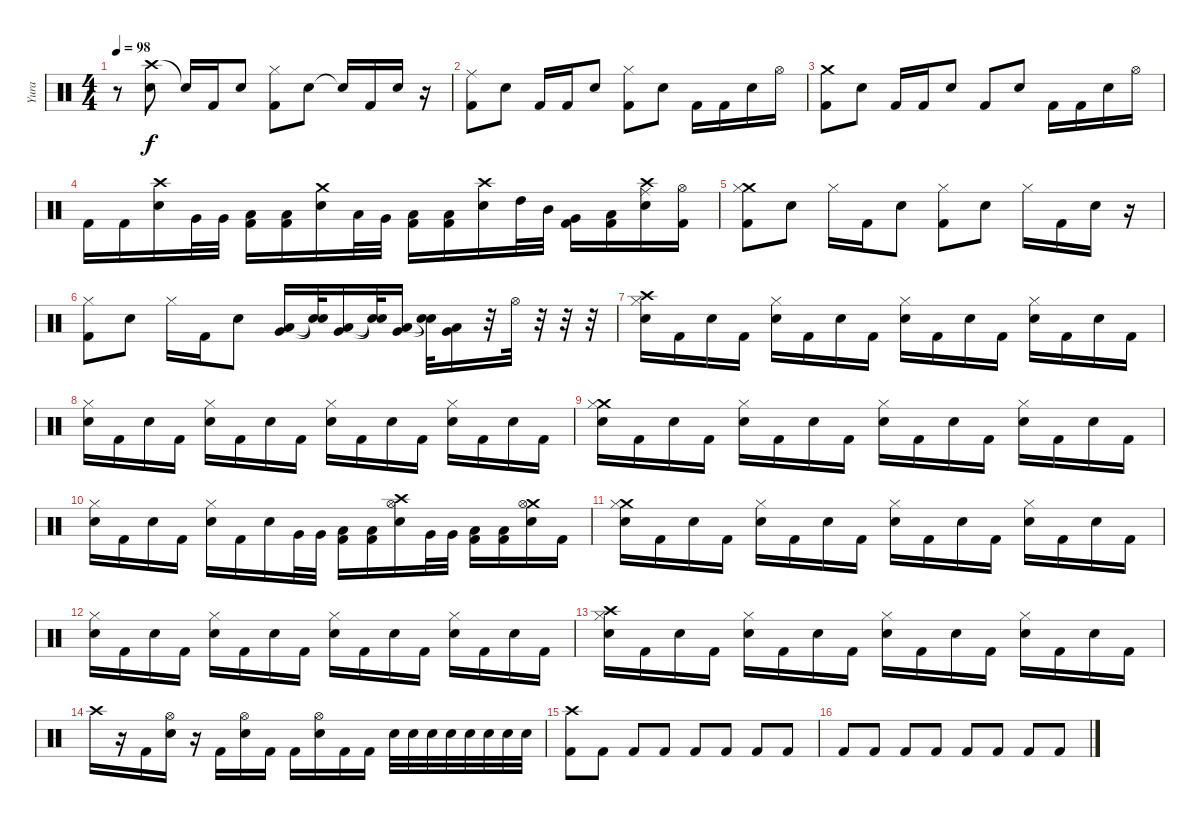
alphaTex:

\track ("Yura" "Yura") {instrument percussion}
\staff {score}
\articulation defaults
\ts (4 4)
\tempo 98
\clef neutral
\ks c
r.8{dy f} ("Crash high (hit)" "Snare (hit) 2").8 "Snare (hit)"{t}.16 "Kick (hit) 2".16 "Snare (hit) 2".8 ("Hi-Hat (closed)" "Kick (hit) 2").8 "Snare (hit) 2".8 "Snare (hit)"{t}.16 "Kick (hit) 2".16 "Snare (hit) 2".16 r.16 |
("Ride (middle)" "Kick (hit) 2").8 "Snare (hit) 2".8 "Kick (hit) 2".16 "Kick (hit) 2".16 "Snare (hit) 2".8 ("Hi-Hat (closed)" "Kick (hit) 2").8 "Snare (hit) 2".8 "Kick (hit) 2".16 "Kick (hit) 2".16 "Snare (hit) 2".16 "Hi-Hat (open)".16 |
("Crash medium (hit)" "Kick (hit) 2").8 "Snare (hit) 2".8 "Kick (hit) 2".16 "Kick (hit) 2".16 "Snare (hit) 2".8 "Kick (hit) 2".8 "Snare (hit) 2".8 "Kick (hit) 2".16 "Kick (hit) 2".16 "Snare (hit) 2".16 "Hi-Hat (open)".16 |
"Kick (hit) 2".16 "Kick (hit) 2".16 ("Crash high (hit)" "Snare (hit) 2").16 "Very Low Tom (hit)".32 "Very Low Tom (hit)".32 ("Low Floor Tom (hit)" "Kick (hit) 2").16 ("Low Floor Tom (hit)" "Kick (hit) 2").16 ("Crash medium (hit)" "Snare (hit) 2").16 "Low Tom (hit)".32 "Very Low Tom (hit)".32 ("Low Floor Tom (hit)" "Kick (hit) 2").16 ("Low Floor Tom (hit)" "Kick (hit) 2").16 ("Crash high (hit)" "Snare (hit) 2").16 "High Tom (hit)".32 "Mid Tom (hit)".32 ("Very Low Tom (hit)" "Kick (hit) 2").16 ("Low Floor Tom (hit)" "Kick (hit) 2").16 ("Crash high (hit)" "Ride (middle)" "Snare (hit) 2").16 ("Hi-Hat (open)" "Kick (hit) 2").16 |
("Crash medium (hit)" "Hi-Hat (closed)" "Kick (hit) 2").8 "Snare (hit) 2".8 "Hi-Hat (closed)".16 "Kick (hit) 2".16 "Snare (hit) 2".8 ("Hi-Hat (closed)" "Kick (hit) 2").8 "Snare (hit) 2".8 "Hi-Hat (closed)".16 "Kick (hit) 2".16 "Snare (hit) 2".16 r.16 |
("Hi-Hat (closed)" "Kick (hit) 2").8 "Snare (hit) 2".8 "Hi-Hat (closed)".16 "Kick (hit) 2".16 "Snare (hit) 2".8 ("Low Floor Tom (hit)" "Very Low Tom (hit)").16 ("Snare (hit)"{t} "Snare (hit)"{t}).32 ("Low Floor Tom (hit)" "Very Low Tom (hit)").16 ("Snare (hit)"{t} "Snare (hit)"{t}).32 ("Low Floor Tom (hit)" "Very Low Tom (hit)").16 ("Snare (hit)"{t} "Snare (hit)"{t}).32 ("Low Floor Tom (hit)" "Very Low Tom (hit)").16 r.32 "Hi-Hat (open)".32 r.32 r.32 r.32 |
("Crash high (hit)" "Hi-Hat (closed)" "Snare (hit) 2").16 "Kick (hit) 2".16 "Snare (hit) 2".16 "Kick (hit) 2".16 ("Hi-Hat (closed)" "Snare (hit) 2").16 "Kick (hit) 2".16 "Snare (hit) 2".16 "Kick (hit) 2".16 ("Hi-Hat (closed)" "Snare (hit) 2").16 "Kick (hit) 2".16 "Snare (hit) 2".16 "Kick (hit) 2".16 ("Hi-Hat (closed)" "Snare (hit) 2").16 "Kick (hit) 2".16 "Snare (hit) 2".16 "Kick (hit) 2".16 |
("Hi-Hat (closed)" "Snare (hit) 2").16 "Kick (hit) 2".16 "Snare (hit) 2".16 "Kick (hit) 2".16 ("Hi-Hat (closed)" "Snare (hit) 2").16 "Kick (hit) 2".16 "Snare (hit) 2".16 "Kick (hit) 2".16 ("Hi-Hat (closed)" "Snare (hit) 2").16 "Kick (hit) 2".16 "Snare (hit) 2".16 "Kick (hit) 2".16 ("Hi-Hat (closed)" "Snare (hit) 2").16 "Kick (hit) 2".16 "Snare (hit) 2".16 "Kick (hit) 2".16 |
("Crash medium (hit)" "Hi-Hat (closed)" "Snare (hit) 2").16 "Kick (hit) 2".16 "Snare (hit) 2".16 "Kick (hit) 2".16 ("Hi-Hat (closed)" "Snare (hit) 2").16 "Kick (hit) 2".16 "Snare (hit) 2".16 "Kick (hit) 2".16 ("Hi-Hat (closed)" "Snare (hit) 2").16 "Kick (hit) 2".16 "Snare (hit) 2".16 "Kick (hit) 2".16 ("Hi-Hat (closed)" "Snare (hit) 2").16 "Kick (hit) 2".16 "Snare (hit) 2".16 "Kick (hit) 2".16 |
("Hi-Hat (closed)" "Snare (hit) 2").16 "Kick (hit) 2".16 "Snare (hit) 2".16 "Kick (hit) 2".16 ("Hi-Hat (closed)" "Snare (hit) 2").16 "Kick (hit) 2".16 "Snare (hit) 2".16 "Very Low Tom (hit)".32 "Very Low Tom (hit)".32 ("Low Floor Tom (hit)" "Kick (hit) 2").16 ("Low Floor Tom (hit)" "Kick (hit) 2").16 ("Crash high (hit)" "Hi-Hat (open)" "Snare (hit) 2").16 "Very Low Tom (hit)".32 "Very Low Tom (hit)".32 ("Low Floor Tom (hit)" "Kick (hit) 2").16 ("Low Floor Tom (hit)" "Kick (hit) 2").16 ("Crash medium (hit)" "Snare (hit) 2" "Hi-Hat (open)").16 "Kick (hit) 2".16 |
("Crash medium (hit)" "Hi-Hat (closed)" "Snare (hit) 2").16 "Kick (hit) 2".16 "Snare (hit) 2".16 "Kick (hit) 2".16 ("Hi-Hat (closed)" "Snare (hit) 2").16 "Kick (hit) 2".16 "Snare (hit) 2".16 "Kick (hit) 2".16 ("Hi-Hat (closed)" "Snare (hit) 2").16 "Kick (hit) 2".16 "Snare (hit) 2".16 "Kick (hit) 2".16 ("Hi-Hat (closed)" "Snare (hit) 2").16 "Kick (hit) 2".16 "Snare (hit) 2".16 "Kick (hit) 2".16 |
("Hi-Hat (closed)" "Snare (hit) 2").16 "Kick (hit) 2".16 "Snare (hit) 2".16 "Kick (hit) 2".16 ("Hi-Hat (closed)" "Snare (hit) 2").16 "Kick (hit) 2".16 "Snare (hit) 2".16 "Kick (hit) 2".16 ("Hi-Hat (closed)" "Snare (hit) 2").16 "Kick (hit) 2".16 "Snare (hit) 2".16 "Kick (hit) 2".16 ("Hi-Hat (closed)" "Snare (hit) 2").16 "Kick (hit) 2".16 "Snare (hit) 2".16 "Kick (hit) 2".16 |
("Crash high (hit)" "Hi-Hat (closed)" "Snare (hit) 2").16 "Kick (hit) 2".16 "Snare (hit) 2".16 "Kick (hit) 2".16 ("Hi-Hat (closed)" "Snare (hit) 2").16 "Kick (hit) 2".16 "Snare (hit) 2".16 "Kick (hit) 2".16 ("Hi-Hat (closed)" "Snare (hit) 2").16 "Kick (hit) 2".16 "Snare (hit) 2".16 "Kick (hit) 2".16 ("Hi-Hat (closed)" "Snare (hit) 2").16 "Kick (hit) 2".16 "Snare (hit) 2".16 "Kick (hit) 2".16 |
"Crash high (hit)".16 r.16 "Kick (hit) 2".16 ("Hi-Hat (open)" "Snare (hit) 2").16 r.16 "Kick (hit) 2".16 ("Hi-Hat (open)" "Snare (hit) 2").16 "Kick (hit) 2".16 "Kick (hit) 2".16 ("Hi-Hat (open)" "Snare (hit) 2").16 "Kick (hit) 2".16 "Kick (hit) 2".16 "Electric Snare (hit)".32 "Electric Snare (hit)".32 "Electric Snare (hit)".32 "Electric Snare (hit)".32 "Snare (hit) 2".32 "Snare (hit) 2".32 "Snare (hit) 2".32 "Snare (hit) 2".32 |
("Crash high (hit)" "Kick (hit) 2").8 "Kick (hit) 2".8 "Kick (hit) 2".8 "Kick (hit) 2".8 "Kick (hit) 2".8 "Kick (hit) 2".8 "Kick (hit) 2".8 "Kick (hit) 2".8 |
"Kick (hit) 2".8 "Kick (hit) 2".8 "Kick (hit) 2".8 "Kick (hit) 2".8 "Kick (hit) 2".8 "Kick (hit) 2".8 "Kick (hit) 2".8 "Kick (hit) 2".8
